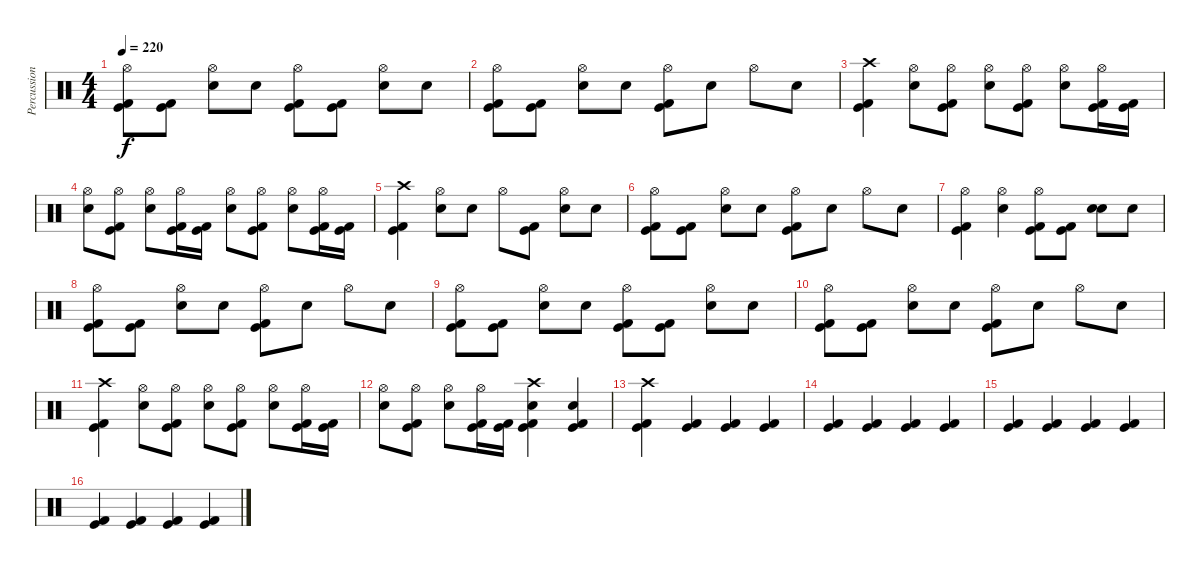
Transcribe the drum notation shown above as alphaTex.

\track ("Percussion" "Percussion") {instrument percussion}
\staff {score}
\articulation defaults
\ts (4 4)
\tempo 220
\clef neutral
\ks c
("Hi-Hat (open)" "Kick (hit)" "Kick (hit) 2").8{dy f} ("Kick (hit)" "Kick (hit) 2").8 ("Hi-Hat (open)" "Electric Snare (hit)").8 "Electric Snare (hit)".8 ("Hi-Hat (open)" "Kick (hit)" "Kick (hit) 2").8 ("Kick (hit)" "Kick (hit) 2").8 ("Hi-Hat (open)" "Electric Snare (hit)").8 "Electric Snare (hit)".8 |
("Hi-Hat (open)" "Kick (hit)" "Kick (hit) 2").8 ("Kick (hit)" "Kick (hit) 2").8 ("Hi-Hat (open)" "Electric Snare (hit)").8 "Electric Snare (hit)".8 ("Hi-Hat (open)" "Kick (hit)" "Kick (hit) 2").8 "Electric Snare (hit)".8 "Hi-Hat (open)".8 "Electric Snare (hit)".8 |
("Crash high (hit)" "Kick (hit)" "Kick (hit) 2").4 ("Hi-Hat (open)" "Electric Snare (hit)").8 ("Hi-Hat (open)" "Kick (hit)" "Kick (hit) 2").8 ("Hi-Hat (open)" "Electric Snare (hit)").8 ("Hi-Hat (open)" "Kick (hit)" "Kick (hit) 2").8 ("Hi-Hat (open)" "Electric Snare (hit)").8 ("Hi-Hat (open)" "Kick (hit)" "Kick (hit) 2").16 ("Kick (hit)" "Kick (hit) 2").16 |
("Hi-Hat (open)" "Electric Snare (hit)").8 ("Hi-Hat (open)" "Kick (hit)" "Kick (hit) 2").8 ("Hi-Hat (open)" "Electric Snare (hit)").8 ("Hi-Hat (open)" "Kick (hit)" "Kick (hit) 2").16 ("Kick (hit)" "Kick (hit) 2").16 ("Hi-Hat (open)" "Electric Snare (hit)").8 ("Hi-Hat (open)" "Kick (hit)" "Kick (hit) 2").8 ("Hi-Hat (open)" "Electric Snare (hit)").8 ("Hi-Hat (open)" "Kick (hit)" "Kick (hit) 2").16 ("Kick (hit)" "Kick (hit) 2").16 |
("Crash high (hit)" "Kick (hit)" "Kick (hit) 2").4 ("Hi-Hat (open)" "Electric Snare (hit)").8 "Electric Snare (hit)".8 "Hi-Hat (open)".8 ("Kick (hit)" "Kick (hit) 2").8 ("Hi-Hat (open)" "Electric Snare (hit)").8 "Electric Snare (hit)".8 |
("Hi-Hat (open)" "Kick (hit)" "Kick (hit) 2").8 ("Kick (hit)" "Kick (hit) 2").8 ("Hi-Hat (open)" "Electric Snare (hit)").8 "Electric Snare (hit)".8 ("Hi-Hat (open)" "Kick (hit)" "Kick (hit) 2").8 "Electric Snare (hit)".8 "Hi-Hat (open)".8 "Electric Snare (hit)".8 |
("Hi-Hat (open)" "Kick (hit)" "Kick (hit) 2").4 ("Hi-Hat (open)" "Electric Snare (hit)").4 ("Hi-Hat (open)" "Kick (hit)" "Kick (hit) 2").8 ("Kick (hit)" "Kick (hit) 2").8 ("Electric Snare (hit)" "Electric Snare (hit)").8 "Electric Snare (hit)".8 |
("Hi-Hat (open)" "Kick (hit)" "Kick (hit) 2").8 ("Kick (hit)" "Kick (hit) 2").8 ("Hi-Hat (open)" "Electric Snare (hit)").8 "Electric Snare (hit)".8 ("Hi-Hat (open)" "Kick (hit)" "Kick (hit) 2").8 "Electric Snare (hit)".8 "Hi-Hat (open)".8 "Electric Snare (hit)".8 |
("Hi-Hat (open)" "Kick (hit)" "Kick (hit) 2").8 ("Kick (hit)" "Kick (hit) 2").8 ("Hi-Hat (open)" "Electric Snare (hit)").8 "Electric Snare (hit)".8 ("Hi-Hat (open)" "Kick (hit)" "Kick (hit) 2").8 ("Kick (hit)" "Kick (hit) 2").8 ("Hi-Hat (open)" "Electric Snare (hit)").8 "Electric Snare (hit)".8 |
("Hi-Hat (open)" "Kick (hit)" "Kick (hit) 2").8 ("Kick (hit)" "Kick (hit) 2").8 ("Hi-Hat (open)" "Electric Snare (hit)").8 "Electric Snare (hit)".8 ("Hi-Hat (open)" "Kick (hit)" "Kick (hit) 2").8 "Electric Snare (hit)".8 "Hi-Hat (open)".8 "Electric Snare (hit)".8 |
("Crash high (hit)" "Kick (hit)" "Kick (hit) 2").4 ("Hi-Hat (open)" "Electric Snare (hit)").8 ("Hi-Hat (open)" "Kick (hit)" "Kick (hit) 2").8 ("Hi-Hat (open)" "Electric Snare (hit)").8 ("Hi-Hat (open)" "Kick (hit)" "Kick (hit) 2").8 ("Hi-Hat (open)" "Electric Snare (hit)").8 ("Hi-Hat (open)" "Kick (hit)" "Kick (hit) 2").16 ("Kick (hit)" "Kick (hit) 2").16 |
("Hi-Hat (open)" "Electric Snare (hit)").8 ("Hi-Hat (open)" "Kick (hit)" "Kick (hit) 2").8 ("Hi-Hat (open)" "Electric Snare (hit)").8 ("Hi-Hat (open)" "Kick (hit)" "Kick (hit) 2").16 ("Kick (hit)" "Kick (hit) 2").16 ("Crash high (hit)" "Electric Snare (hit)" "Kick (hit) 2" "Kick (hit)").4 ("Electric Snare (hit)" "Kick (hit)" "Kick (hit) 2").4 |
("Crash high (hit)" "Kick (hit)" "Kick (hit) 2").4 ("Kick (hit)" "Kick (hit) 2").4 ("Kick (hit)" "Kick (hit) 2").4 ("Kick (hit)" "Kick (hit) 2").4 |
("Kick (hit)" "Kick (hit) 2").4 ("Kick (hit)" "Kick (hit) 2").4 ("Kick (hit)" "Kick (hit) 2").4 ("Kick (hit)" "Kick (hit) 2").4 |
("Kick (hit)" "Kick (hit) 2").4 ("Kick (hit)" "Kick (hit) 2").4 ("Kick (hit)" "Kick (hit) 2").4 ("Kick (hit)" "Kick (hit) 2").4 |
("Kick (hit)" "Kick (hit) 2").4 ("Kick (hit)" "Kick (hit) 2").4 ("Kick (hit)" "Kick (hit) 2").4 ("Kick (hit)" "Kick (hit) 2").4
